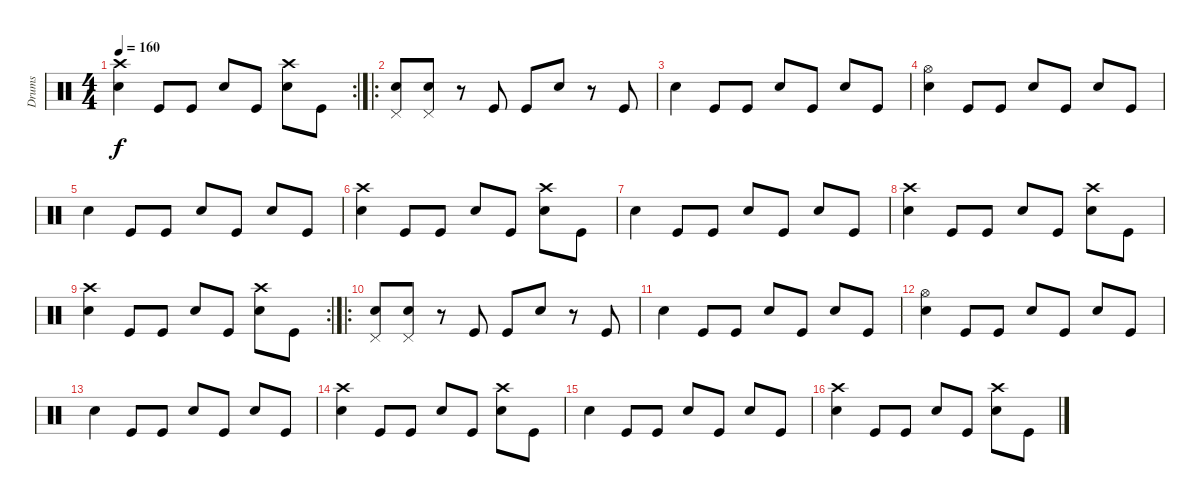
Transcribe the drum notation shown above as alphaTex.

\track ("Drums" "Drums") {instrument percussion}
\staff {score}
\articulation defaults
\rc 2
\ts (4 4)
\tempo 160
\clef neutral
\ks c
("Crash high (hit)" "Snare (hit) 2").4{dy f} "Kick (hit)".8 "Kick (hit)".8 "Snare (hit) 2".8 "Kick (hit)".8 ("Crash high (hit)" "Snare (hit) 2").8 "Kick (hit)".8 |
\ro
("Pedal Hi-Hat (hit)" "Snare (hit) 2").8 ("Pedal Hi-Hat (hit)" "Snare (hit) 2").8 r.8 "Kick (hit)".8 "Kick (hit)".8 "Snare (hit) 2".8 r.8 "Kick (hit)".8 |
"Snare (hit) 2".4 "Kick (hit)".8 "Kick (hit)".8 "Snare (hit) 2".8 "Kick (hit)".8 "Snare (hit) 2".8 "Kick (hit)".8 |
("Hi-Hat (open)" "Snare (hit) 2").4 "Kick (hit)".8 "Kick (hit)".8 "Snare (hit) 2".8 "Kick (hit)".8 "Snare (hit) 2".8 "Kick (hit)".8 |
"Snare (hit) 2".4 "Kick (hit)".8 "Kick (hit)".8 "Snare (hit) 2".8 "Kick (hit)".8 "Snare (hit) 2".8 "Kick (hit)".8 |
("Crash high (hit)" "Snare (hit) 2").4 "Kick (hit)".8 "Kick (hit)".8 "Snare (hit) 2".8 "Kick (hit)".8 ("Crash high (hit)" "Snare (hit) 2").8 "Kick (hit)".8 |
"Snare (hit) 2".4 "Kick (hit)".8 "Kick (hit)".8 "Snare (hit) 2".8 "Kick (hit)".8 "Snare (hit) 2".8 "Kick (hit)".8 |
("Crash high (hit)" "Snare (hit) 2").4 "Kick (hit)".8 "Kick (hit)".8 "Snare (hit) 2".8 "Kick (hit)".8 ("Crash high (hit)" "Snare (hit) 2").8 "Kick (hit)".8 |
\rc 2
("Crash high (hit)" "Snare (hit) 2").4 "Kick (hit)".8 "Kick (hit)".8 "Snare (hit) 2".8 "Kick (hit)".8 ("Crash high (hit)" "Snare (hit) 2").8 "Kick (hit)".8 |
\ro
("Pedal Hi-Hat (hit)" "Snare (hit) 2").8 ("Pedal Hi-Hat (hit)" "Snare (hit) 2").8 r.8 "Kick (hit)".8 "Kick (hit)".8 "Snare (hit) 2".8 r.8 "Kick (hit)".8 |
"Snare (hit) 2".4 "Kick (hit)".8 "Kick (hit)".8 "Snare (hit) 2".8 "Kick (hit)".8 "Snare (hit) 2".8 "Kick (hit)".8 |
("Hi-Hat (open)" "Snare (hit) 2").4 "Kick (hit)".8 "Kick (hit)".8 "Snare (hit) 2".8 "Kick (hit)".8 "Snare (hit) 2".8 "Kick (hit)".8 |
"Snare (hit) 2".4 "Kick (hit)".8 "Kick (hit)".8 "Snare (hit) 2".8 "Kick (hit)".8 "Snare (hit) 2".8 "Kick (hit)".8 |
("Crash high (hit)" "Snare (hit) 2").4 "Kick (hit)".8 "Kick (hit)".8 "Snare (hit) 2".8 "Kick (hit)".8 ("Crash high (hit)" "Snare (hit) 2").8 "Kick (hit)".8 |
"Snare (hit) 2".4 "Kick (hit)".8 "Kick (hit)".8 "Snare (hit) 2".8 "Kick (hit)".8 "Snare (hit) 2".8 "Kick (hit)".8 |
("Crash high (hit)" "Snare (hit) 2").4 "Kick (hit)".8 "Kick (hit)".8 "Snare (hit) 2".8 "Kick (hit)".8 ("Crash high (hit)" "Snare (hit) 2").8 "Kick (hit)".8
